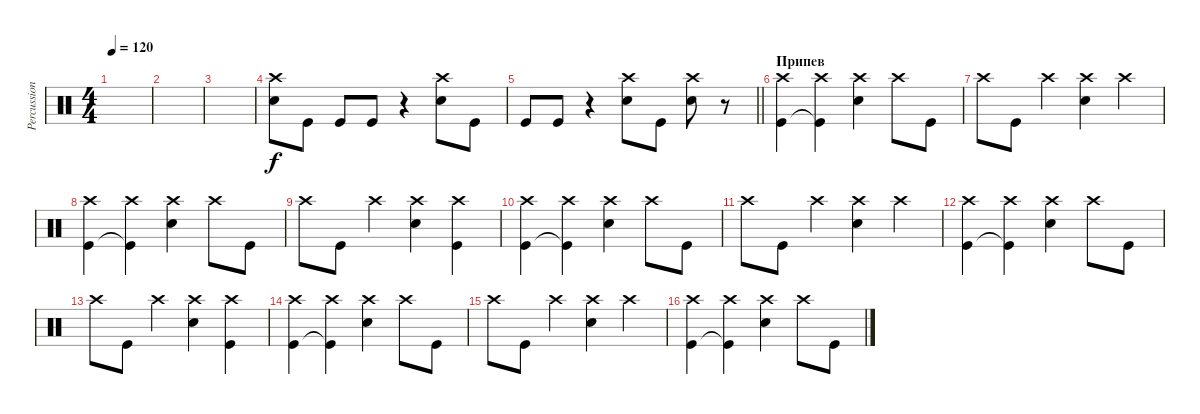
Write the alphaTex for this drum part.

\track ("Percussion" "Percussion") {instrument percussion}
\staff {score}
\articulation defaults
\ts (4 4)
\tempo 120
\clef neutral
\ks c
|
|
|
("Snare (hit) 2" "Crash high (hit)").8 "Kick (hit)".8 "Kick (hit)".8 "Kick (hit)".8 r.4 ("Snare (hit) 2" "Crash high (hit)").8 "Kick (hit)".8 |
\barLineRight lightlight "Kick (hit)".8 "Kick (hit)".8
r.4 ("Snare (hit) 2" "Crash high (hit)").8 "Kick (hit)".8 ("Snare (hit) 2" "Crash high (hit)").8 r.8 |
\section ("" "Припев")
("Crash high (hit)" "Kick (hit)").4 ("Crash high (hit)" "Kick (hit)"{t}).4 ("Crash high (hit)" "Snare (hit) 2").4 "Crash high (hit)".8 "Kick (hit)".8 |
"Crash high (hit)".8 "Kick (hit)".8 "Crash high (hit)".4 ("Crash high (hit)" "Snare (hit) 2").4 "Crash high (hit)".4 |
("Crash high (hit)" "Kick (hit)").4 ("Crash high (hit)" "Kick (hit)"{t}).4 ("Crash high (hit)" "Snare (hit) 2").4 "Crash high (hit)".8 "Kick (hit)".8 |
"Crash high (hit)".8 "Kick (hit)".8 "Crash high (hit)".4 ("Crash high (hit)" "Snare (hit) 2").4 ("Crash high (hit)" "Kick (hit)").4 |
("Crash high (hit)" "Kick (hit)").4 ("Crash high (hit)" "Kick (hit)"{t}).4 ("Crash high (hit)" "Snare (hit) 2").4 "Crash high (hit)".8 "Kick (hit)".8 |
"Crash high (hit)".8 "Kick (hit)".8 "Crash high (hit)".4 ("Crash high (hit)" "Snare (hit) 2").4 "Crash high (hit)".4 |
("Crash high (hit)" "Kick (hit)").4 ("Crash high (hit)" "Kick (hit)"{t}).4 ("Crash high (hit)" "Snare (hit) 2").4 "Crash high (hit)".8 "Kick (hit)".8 |
"Crash high (hit)".8 "Kick (hit)".8 "Crash high (hit)".4 ("Crash high (hit)" "Snare (hit) 2").4 ("Crash high (hit)" "Kick (hit)").4 |
("Crash high (hit)" "Kick (hit)").4 ("Crash high (hit)" "Kick (hit)"{t}).4 ("Crash high (hit)" "Snare (hit) 2").4 "Crash high (hit)".8 "Kick (hit)".8 |
"Crash high (hit)".8 "Kick (hit)".8 "Crash high (hit)".4 ("Crash high (hit)" "Snare (hit) 2").4 "Crash high (hit)".4 |
("Crash high (hit)" "Kick (hit)").4 ("Crash high (hit)" "Kick (hit)"{t}).4 ("Crash high (hit)" "Snare (hit) 2").4 "Crash high (hit)".8 "Kick (hit)".8
